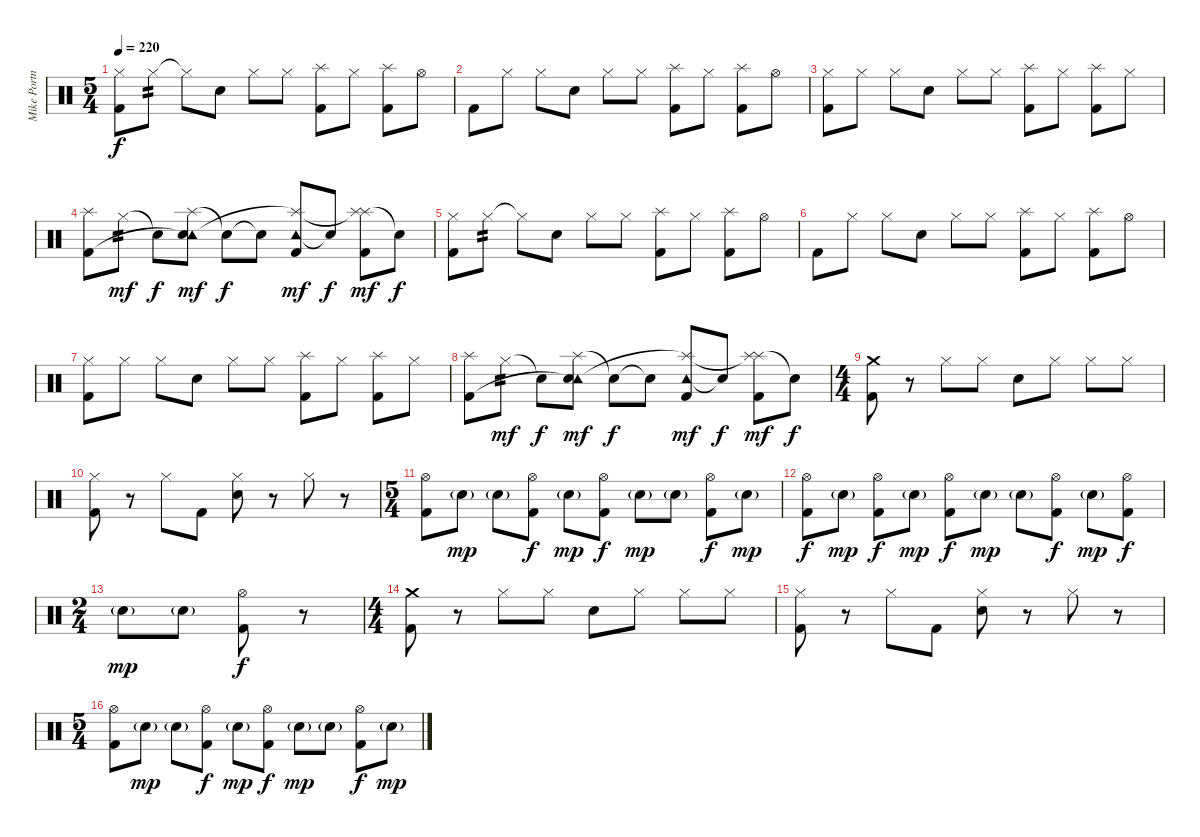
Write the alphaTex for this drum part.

\track ("Mike Portnoy" "Mike Portn") {instrument percussion}
\staff {score}
\articulation defaults
\ts (5 4)
\tempo 220
\clef neutral
\ks c
("Hi-Hat (closed)" "Kick (hit) 2").8{dy f} "Hi-Hat (closed)".8{tp 2} "Hi-Hat (closed)"{t}.8 "Electric Snare (hit)".8 "Hi-Hat (closed)".8 "Hi-Hat (closed)".8 ("Splash (hit)" "Kick (hit) 2").8 "Hi-Hat (closed)".8 ("Splash (hit)" "Kick (hit) 2").8 "Hi-Hat (open)".8 |
"Kick (hit) 2".8 "Hi-Hat (closed)".8 "Hi-Hat (closed)".8 "Electric Snare (hit)".8 "Hi-Hat (closed)".8 "Hi-Hat (closed)".8 ("Splash (hit)" "Kick (hit) 2").8 "Hi-Hat (closed)".8 ("Splash (hit)" "Kick (hit) 2").8 "Hi-Hat (open)".8 |
("Hi-Hat (closed)" "Kick (hit) 2").8 "Hi-Hat (closed)".8 "Hi-Hat (closed)".8 "Electric Snare (hit)".8 "Hi-Hat (closed)".8 "Hi-Hat (closed)".8 ("Splash (hit)" "Kick (hit) 2").8 "Hi-Hat (closed)".8 ("Splash (hit)" "Kick (hit) 2").8 "Hi-Hat (closed)".8 |
("Splash (hit)" "Kick (hit) 2").8 "Hi-Hat (closed)".8{tp 2 dy mf} "Snare (hit)"{t}.8{dy f} ("Splash (hit)" "Tambourine (hit)"{t} "Electric Snare (hit)").8{dy mf} "Snare (hit)"{t}.8{dy f} "Snare (hit)"{t}.8 ("Tambourine (hit)" "Splash (hit)"{t} "Kick (hit) 2").8{dy mf} "Snare (hit)"{t}.8{dy f} ("Splash (hit)" "Splash (hit)"{t} "Kick (hit) 2").8{dy mf} "Snare (hit)"{t}.8{dy f} |
("Hi-Hat (closed)" "Kick (hit) 2").8 "Hi-Hat (closed)".8{tp 2} "Hi-Hat (closed)"{t}.8 "Electric Snare (hit)".8 "Hi-Hat (closed)".8 "Hi-Hat (closed)".8 ("Splash (hit)" "Kick (hit) 2").8 "Hi-Hat (closed)".8 ("Splash (hit)" "Kick (hit) 2").8 "Hi-Hat (open)".8 |
"Kick (hit) 2".8 "Hi-Hat (closed)".8 "Hi-Hat (closed)".8 "Electric Snare (hit)".8 "Hi-Hat (closed)".8 "Hi-Hat (closed)".8 ("Splash (hit)" "Kick (hit) 2").8 "Hi-Hat (closed)".8 ("Splash (hit)" "Kick (hit) 2").8 "Hi-Hat (open)".8 |
("Hi-Hat (closed)" "Kick (hit) 2").8 "Hi-Hat (closed)".8 "Hi-Hat (closed)".8 "Electric Snare (hit)".8 "Hi-Hat (closed)".8 "Hi-Hat (closed)".8 ("Splash (hit)" "Kick (hit) 2").8 "Hi-Hat (closed)".8 ("Splash (hit)" "Kick (hit) 2").8 "Hi-Hat (closed)".8 |
("Splash (hit)" "Kick (hit) 2").8 "Hi-Hat (closed)".8{tp 2 dy mf} "Snare (hit)"{t}.8{dy f} ("Splash (hit)" "Tambourine (hit)"{t} "Electric Snare (hit)").8{dy mf} "Snare (hit)"{t}.8{dy f} "Snare (hit)"{t}.8 ("Tambourine (hit)" "Splash (hit)"{t} "Kick (hit) 2").8{dy mf} "Snare (hit)"{t}.8{dy f} ("Splash (hit)" "Splash (hit)"{t} "Kick (hit) 2").8{dy mf} "Snare (hit)"{t}.8{dy f} |
\ts (4 4)
("Crash medium (hit)" "Kick (hit) 2").8 r.8 "Hi-Hat (closed)".8 "Hi-Hat (closed)".8 "Electric Snare (hit)".8 "Hi-Hat (closed)".8 "Hi-Hat (closed)".8 "Hi-Hat (closed)".8 |
("Hi-Hat (closed)" "Kick (hit) 2").8 r.8 "Hi-Hat (closed)".8 "Kick (hit) 2".8 ("Hi-Hat (closed)" "Electric Snare (hit)").8 r.8 "Hi-Hat (closed)".8 r.8 |
\ts (5 4)
("Hi-Hat (open)" "Kick (hit) 2").8 "Electric Snare (hit)"{g}.8{dy mp} "Electric Snare (hit)"{g}.8 ("Hi-Hat (open)" "Kick (hit) 2").8{dy f} "Electric Snare (hit)"{g}.8{dy mp} ("Hi-Hat (open)" "Kick (hit) 2").8{dy f} "Electric Snare (hit)"{g}.8{dy mp} "Electric Snare (hit)"{g}.8 ("Hi-Hat (open)" "Kick (hit) 2").8{dy f} "Electric Snare (hit)"{g}.8{dy mp} |
("Hi-Hat (open)" "Kick (hit) 2").8{dy f} "Electric Snare (hit)"{g}.8{dy mp} ("Hi-Hat (open)" "Kick (hit) 2").8{dy f} "Electric Snare (hit)"{g}.8{dy mp} ("Hi-Hat (open)" "Kick (hit) 2").8{dy f} "Electric Snare (hit)"{g}.8{dy mp} "Electric Snare (hit)"{g}.8 ("Hi-Hat (open)" "Kick (hit) 2").8{dy f} "Electric Snare (hit)"{g}.8{dy mp} ("Hi-Hat (open)" "Kick (hit) 2").8{dy f} |
\ts (2 4)
"Electric Snare (hit)"{g}.8{dy mp} "Electric Snare (hit)"{g}.8 ("Hi-Hat (open)" "Kick (hit) 2").8{dy f} r.8 |
\ts (4 4)
("Crash medium (hit)" "Kick (hit) 2").8 r.8 "Hi-Hat (closed)".8 "Hi-Hat (closed)".8 "Electric Snare (hit)".8 "Hi-Hat (closed)".8 "Hi-Hat (closed)".8 "Hi-Hat (closed)".8 |
("Hi-Hat (closed)" "Kick (hit) 2").8 r.8 "Hi-Hat (closed)".8 "Kick (hit) 2".8 ("Hi-Hat (closed)" "Electric Snare (hit)").8 r.8 "Hi-Hat (closed)".8 r.8 |
\ts (5 4)
("Hi-Hat (open)" "Kick (hit) 2").8 "Electric Snare (hit)"{g}.8{dy mp} "Electric Snare (hit)"{g}.8 ("Hi-Hat (open)" "Kick (hit) 2").8{dy f} "Electric Snare (hit)"{g}.8{dy mp} ("Hi-Hat (open)" "Kick (hit) 2").8{dy f} "Electric Snare (hit)"{g}.8{dy mp} "Electric Snare (hit)"{g}.8 ("Hi-Hat (open)" "Kick (hit) 2").8{dy f} "Electric Snare (hit)"{g}.8{dy mp}
